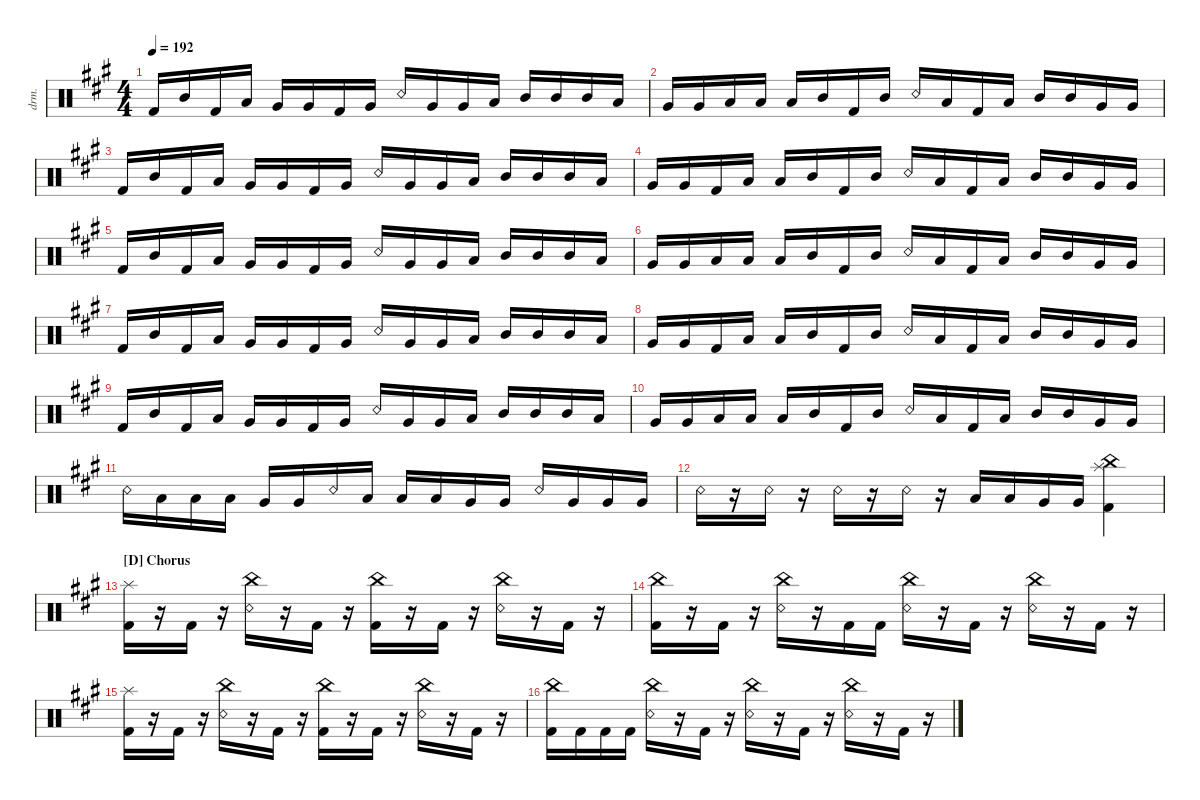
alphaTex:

\defaultSystemsLayout 4
\hideDynamics
\bracketExtendMode nobrackets
\otherSystemsTrackNameOrientation horizontal
\track ("Drumkit" "drm.") {instrument percussion}
\staff {score}
\articulation defaults
\ts (4 4)
\tempo 192
\clef neutral
\ks a "Kick (hit) 2"{acc forcenatural}.16{dy ff beam Up} "Mid Tom (hit)"{acc forcenatural}.16{beam Up} "Kick (hit) 2"{acc forcenatural}.16{beam Up} "Low Tom (hit)"{acc forcenatural}.16{beam Up} "Very Low Tom (hit)"{acc forcenatural}.16{beam Up} "Very Low Tom (hit)"{acc forcenatural}.16{beam Up} "Kick (hit) 2"{acc forcenatural}.16{beam Up} "Very Low Tom (hit)"{acc forcenatural}.16{beam Up} "Snare (rim shot)"{acc forcenatural}.16{beam Up} "Very Low Tom (hit)"{acc forcenatural}.16{beam Up} "Very Low Tom (hit)"{acc forcenatural}.16{beam Up} "Low Tom (hit)"{acc forcenatural}.16{beam Up} "Mid Tom (hit)"{acc forcenatural}.16{beam Up} "Mid Tom (hit)"{acc forcenatural}.16{beam Up} "Mid Tom (hit)"{acc forcenatural}.16{beam Up} "Low Tom (hit)"{acc forcenatural}.16{beam Up}
|
"Very Low Tom (hit)"{acc forcenatural}.16{beam Up} "Very Low Tom (hit)"{acc forcenatural}.16{beam Up} "Low Tom (hit)"{acc forcenatural}.16{beam Up} "Low Tom (hit)"{acc forcenatural}.16{beam Up} "Low Tom (hit)"{acc forcenatural}.16{beam Up} "Mid Tom (hit)"{acc forcenatural}.16{beam Up} "Kick (hit) 2"{acc forcenatural}.16{beam Up} "Mid Tom (hit)"{acc forcenatural}.16{beam Up} "Snare (rim shot)"{acc forcenatural}.16{beam Up} "Low Tom (hit)"{acc forcenatural}.16{beam Up} "Kick (hit) 2"{acc forcenatural}.16{beam Up} "Low Tom (hit)"{acc forcenatural}.16{beam Up} "Mid Tom (hit)"{acc forcenatural}.16{beam Up} "Mid Tom (hit)"{acc forcenatural}.16{beam Up} "Very Low Tom (hit)"{acc forcenatural}.16{beam Up} "Very Low Tom (hit)"{acc forcenatural}.16{beam Up} |
"Kick (hit) 2"{acc forcenatural}.16{beam Up} "Mid Tom (hit)"{acc forcenatural}.16{beam Up} "Kick (hit) 2"{acc forcenatural}.16{beam Up} "Low Tom (hit)"{acc forcenatural}.16{beam Up} "Very Low Tom (hit)"{acc forcenatural}.16{beam Up} "Very Low Tom (hit)"{acc forcenatural}.16{beam Up} "Kick (hit) 2"{acc forcenatural}.16{beam Up} "Very Low Tom (hit)"{acc forcenatural}.16{beam Up} "Snare (rim shot)"{acc forcenatural}.16{beam Up} "Very Low Tom (hit)"{acc forcenatural}.16{beam Up} "Very Low Tom (hit)"{acc forcenatural}.16{beam Up} "Low Tom (hit)"{acc forcenatural}.16{beam Up} "Mid Tom (hit)"{acc forcenatural}.16{beam Up} "Mid Tom (hit)"{acc forcenatural}.16{beam Up} "Mid Tom (hit)"{acc forcenatural}.16{beam Up} "Low Tom (hit)"{acc forcenatural}.16{beam Up} |
"Very Low Tom (hit)"{acc forcenatural}.16{beam Up} "Very Low Tom (hit)"{acc forcenatural}.16{beam Up} "Kick (hit) 2"{acc forcenatural}.16{beam Up} "Low Tom (hit)"{acc forcenatural}.16{beam Up} "Low Tom (hit)"{acc forcenatural}.16{beam Up} "Mid Tom (hit)"{acc forcenatural}.16{beam Up} "Kick (hit) 2"{acc forcenatural}.16{beam Up} "Mid Tom (hit)"{acc forcenatural}.16{beam Up} "Snare (rim shot)"{acc forcenatural}.16{beam Up} "Low Tom (hit)"{acc forcenatural}.16{beam Up} "Kick (hit) 2"{acc forcenatural}.16{beam Up} "Low Tom (hit)"{acc forcenatural}.16{beam Up} "Mid Tom (hit)"{acc forcenatural}.16{beam Up} "Mid Tom (hit)"{acc forcenatural}.16{beam Up} "Very Low Tom (hit)"{acc forcenatural}.16{beam Up} "Very Low Tom (hit)"{acc forcenatural}.16{beam Up} |
"Kick (hit) 2"{acc forcenatural}.16{beam Up} "Mid Tom (hit)"{acc forcenatural}.16{beam Up} "Kick (hit) 2"{acc forcenatural}.16{beam Up} "Low Tom (hit)"{acc forcenatural}.16{beam Up} "Very Low Tom (hit)"{acc forcenatural}.16{beam Up} "Very Low Tom (hit)"{acc forcenatural}.16{beam Up} "Kick (hit) 2"{acc forcenatural}.16{beam Up} "Very Low Tom (hit)"{acc forcenatural}.16{beam Up} "Snare (rim shot)"{acc forcenatural}.16{beam Up} "Very Low Tom (hit)"{acc forcenatural}.16{beam Up} "Very Low Tom (hit)"{acc forcenatural}.16{beam Up} "Low Tom (hit)"{acc forcenatural}.16{beam Up} "Mid Tom (hit)"{acc forcenatural}.16{beam Up} "Mid Tom (hit)"{acc forcenatural}.16{beam Up} "Mid Tom (hit)"{acc forcenatural}.16{beam Up} "Low Tom (hit)"{acc forcenatural}.16{beam Up} |
"Very Low Tom (hit)"{acc forcenatural}.16{beam Up} "Very Low Tom (hit)"{acc forcenatural}.16{beam Up} "Low Tom (hit)"{acc forcenatural}.16{beam Up} "Low Tom (hit)"{acc forcenatural}.16{beam Up} "Low Tom (hit)"{acc forcenatural}.16{beam Up} "Mid Tom (hit)"{acc forcenatural}.16{beam Up} "Kick (hit) 2"{acc forcenatural}.16{beam Up} "Mid Tom (hit)"{acc forcenatural}.16{beam Up} "Snare (rim shot)"{acc forcenatural}.16{beam Up} "Low Tom (hit)"{acc forcenatural}.16{beam Up} "Kick (hit) 2"{acc forcenatural}.16{beam Up} "Low Tom (hit)"{acc forcenatural}.16{beam Up} "Mid Tom (hit)"{acc forcenatural}.16{beam Up} "Mid Tom (hit)"{acc forcenatural}.16{beam Up} "Very Low Tom (hit)"{acc forcenatural}.16{beam Up} "Very Low Tom (hit)"{acc forcenatural}.16{beam Up} |
"Kick (hit) 2"{acc forcenatural}.16{beam Up} "Mid Tom (hit)"{acc forcenatural}.16{beam Up} "Kick (hit) 2"{acc forcenatural}.16{beam Up} "Low Tom (hit)"{acc forcenatural}.16{beam Up} "Very Low Tom (hit)"{acc forcenatural}.16{beam Up} "Very Low Tom (hit)"{acc forcenatural}.16{beam Up} "Kick (hit) 2"{acc forcenatural}.16{beam Up} "Very Low Tom (hit)"{acc forcenatural}.16{beam Up} "Snare (rim shot)"{acc forcenatural}.16{beam Up} "Very Low Tom (hit)"{acc forcenatural}.16{beam Up} "Very Low Tom (hit)"{acc forcenatural}.16{beam Up} "Low Tom (hit)"{acc forcenatural}.16{beam Up} "Mid Tom (hit)"{acc forcenatural}.16{beam Up} "Mid Tom (hit)"{acc forcenatural}.16{beam Up} "Mid Tom (hit)"{acc forcenatural}.16{beam Up} "Low Tom (hit)"{acc forcenatural}.16{beam Up} |
"Very Low Tom (hit)"{acc forcenatural}.16{beam Up} "Very Low Tom (hit)"{acc forcenatural}.16{beam Up} "Kick (hit) 2"{acc forcenatural}.16{beam Up} "Low Tom (hit)"{acc forcenatural}.16{beam Up} "Low Tom (hit)"{acc forcenatural}.16{beam Up} "Mid Tom (hit)"{acc forcenatural}.16{beam Up} "Kick (hit) 2"{acc forcenatural}.16{beam Up} "Mid Tom (hit)"{acc forcenatural}.16{beam Up} "Snare (rim shot)"{acc forcenatural}.16{beam Up} "Low Tom (hit)"{acc forcenatural}.16{beam Up} "Kick (hit) 2"{acc forcenatural}.16{beam Up} "Low Tom (hit)"{acc forcenatural}.16{beam Up} "Mid Tom (hit)"{acc forcenatural}.16{beam Up} "Mid Tom (hit)"{acc forcenatural}.16{beam Up} "Very Low Tom (hit)"{acc forcenatural}.16{beam Up} "Very Low Tom (hit)"{acc forcenatural}.16{beam Up} |
"Kick (hit) 2"{acc forcenatural}.16{beam Up} "Mid Tom (hit)"{acc forcenatural}.16{beam Up} "Kick (hit) 2"{acc forcenatural}.16{beam Up} "Low Tom (hit)"{acc forcenatural}.16{beam Up} "Very Low Tom (hit)"{acc forcenatural}.16{beam Up} "Very Low Tom (hit)"{acc forcenatural}.16{beam Up} "Kick (hit) 2"{acc forcenatural}.16{beam Up} "Very Low Tom (hit)"{acc forcenatural}.16{beam Up} "Snare (rim shot)"{acc forcenatural}.16{beam Up} "Very Low Tom (hit)"{acc forcenatural}.16{beam Up} "Very Low Tom (hit)"{acc forcenatural}.16{beam Up} "Low Tom (hit)"{acc forcenatural}.16{beam Up} "Mid Tom (hit)"{acc forcenatural}.16{beam Up} "Mid Tom (hit)"{acc forcenatural}.16{beam Up} "Mid Tom (hit)"{acc forcenatural}.16{beam Up} "Low Tom (hit)"{acc forcenatural}.16{beam Up} |
"Very Low Tom (hit)"{acc forcenatural}.16{beam Up} "Very Low Tom (hit)"{acc forcenatural}.16{beam Up} "Low Tom (hit)"{acc forcenatural}.16{beam Up} "Low Tom (hit)"{acc forcenatural}.16{beam Up} "Low Tom (hit)"{acc forcenatural}.16{beam Up} "Mid Tom (hit)"{acc forcenatural}.16{beam Up} "Kick (hit) 2"{acc forcenatural}.16{beam Up} "Mid Tom (hit)"{acc forcenatural}.16{beam Up} "Snare (rim shot)"{acc forcenatural}.16{beam Up} "Low Tom (hit)"{acc forcenatural}.16{beam Up} "Kick (hit) 2"{acc forcenatural}.16{beam Up} "Low Tom (hit)"{acc forcenatural}.16{beam Up} "Mid Tom (hit)"{acc forcenatural}.16{beam Up} "Mid Tom (hit)"{acc forcenatural}.16{beam Up} "Very Low Tom (hit)"{acc forcenatural}.16{beam Up} "Very Low Tom (hit)"{acc forcenatural}.16{beam Up} |
"Snare (rim shot)"{acc forcenatural}.16{beam Down} "Low Tom (hit)"{acc forcenatural}.16{beam Down} "Low Tom (hit)"{acc forcenatural}.16{beam Down} "Low Tom (hit)"{acc forcenatural}.16{beam Down} "Very Low Tom (hit)"{acc forcenatural}.16{beam Up} "Very Low Tom (hit)"{acc forcenatural}.16{beam Up} "Snare (rim shot)"{acc forcenatural}.16{beam Up} "Low Tom (hit)"{acc forcenatural}.16{beam Up} "Low Tom (hit)"{acc forcenatural}.16{beam Up} "Low Tom (hit)"{acc forcenatural}.16{beam Up} "Very Low Tom (hit)"{acc forcenatural}.16{beam Up} "Very Low Tom (hit)"{acc forcenatural}.16{beam Up} "Snare (rim shot)"{acc forcenatural}.16{beam Up} "Very Low Tom (hit)"{acc forcenatural}.16{beam Up} "Very Low Tom (hit)"{acc forcenatural}.16{beam Up} "Very Low Tom (hit)"{acc forcenatural}.16{beam Up} |
"Snare (rim shot)"{acc forcenatural}.16{beam Down} r.16{beam Down} "Snare (rim shot)"{acc forcenatural}.16{beam Down} r.16{beam Down} "Snare (rim shot)"{acc forcenatural}.16{beam Down} r.16{beam Down} "Snare (rim shot)"{acc forcenatural}.16{beam Down} r.16{beam Down} "Low Tom (hit)"{acc forcenatural}.16{beam Up} "Low Tom (hit)"{acc forcenatural}.16{beam Up} "Very Low Tom (hit)"{acc forcenatural}.16{beam Up} "Very Low Tom (hit)"{acc forcenatural}.16{beam Up} ("Kick (hit) 2"{acc forcenatural} "China (hit)"{acc forcenatural} "Splash (hit)"{acc forcenatural}).4{beam Down} |
\section ("D" "Chorus")
("Kick (hit) 2"{acc forcenatural} "Splash (hit)"{acc forcenatural}).16{beam Down} r.16{beam Down} "Kick (hit) 2"{acc forcenatural}.16{beam Down} r.16{beam Down} ("China (hit)"{acc forcenatural} "Snare (rim shot)"{acc forcenatural}).16{beam Down} r.16{beam Down} "Kick (hit) 2"{acc forcenatural}.16{beam Down} r.16{beam Down} ("China (hit)"{acc forcenatural} "Kick (hit) 2"{acc forcenatural}).16{beam Down} r.16{beam Down} "Kick (hit) 2"{acc forcenatural}.16{beam Down} r.16{beam Down} ("China (hit)"{acc forcenatural} "Snare (rim shot)"{acc forcenatural}).16{beam Down} r.16{beam Down} "Kick (hit) 2"{acc forcenatural}.16{beam Down} r.16{beam Down} |
("Kick (hit) 2"{acc forcenatural} "China (hit)"{acc forcenatural}).16{beam Down} r.16{beam Down} "Kick (hit) 2"{acc forcenatural}.16{beam Down} r.16{beam Down} ("China (hit)"{acc forcenatural} "Snare (rim shot)"{acc forcenatural}).16{beam Down} r.16{beam Down} "Kick (hit) 2"{acc forcenatural}.16{beam Down} "Kick (hit) 2"{acc forcenatural}.16{beam Down} ("China (hit)"{acc forcenatural} "Snare (rim shot)"{acc forcenatural}).16{beam Down} r.16{beam Down} "Kick (hit) 2"{acc forcenatural}.16{beam Down} r.16{beam Down} ("China (hit)"{acc forcenatural} "Snare (rim shot)"{acc forcenatural}).16{beam Down} r.16{beam Down} "Kick (hit) 2"{acc forcenatural}.16{beam Down} r.16{beam Down} |
("Kick (hit) 2"{acc forcenatural} "Splash (hit)"{acc forcenatural}).16{beam Down} r.16{beam Down} "Kick (hit) 2"{acc forcenatural}.16{beam Down} r.16{beam Down} ("China (hit)"{acc forcenatural} "Snare (rim shot)"{acc forcenatural}).16{beam Down} r.16{beam Down} "Kick (hit) 2"{acc forcenatural}.16{beam Down} r.16{beam Down} ("China (hit)"{acc forcenatural} "Kick (hit) 2"{acc forcenatural}).16{beam Down} r.16{beam Down} "Kick (hit) 2"{acc forcenatural}.16{beam Down} r.16{beam Down} ("China (hit)"{acc forcenatural} "Snare (rim shot)"{acc forcenatural}).16{beam Down} r.16{beam Down} "Kick (hit) 2"{acc forcenatural}.16{beam Down} r.16{beam Down} |
("Kick (hit) 2"{acc forcenatural} "China (hit)"{acc forcenatural}).16{beam Down} "Kick (hit) 2"{acc forcenatural}.16{beam Down} "Kick (hit) 2"{acc forcenatural}.16{beam Down} "Kick (hit) 2"{acc forcenatural}.16{beam Down} ("China (hit)"{acc forcenatural} "Snare (rim shot)"{acc forcenatural}).16{beam Down} r.16{beam Down} "Kick (hit) 2"{acc forcenatural}.16{beam Down} r.16{beam Down} ("China (hit)"{acc forcenatural} "Snare (rim shot)"{acc forcenatural}).16{beam Down} r.16{beam Down} "Kick (hit) 2"{acc forcenatural}.16{beam Down} r.16{beam Down} ("China (hit)"{acc forcenatural} "Snare (rim shot)"{acc forcenatural}).16{beam Down} r.16{beam Down} "Kick (hit) 2"{acc forcenatural}.16{beam Down} r.16{beam Down}
